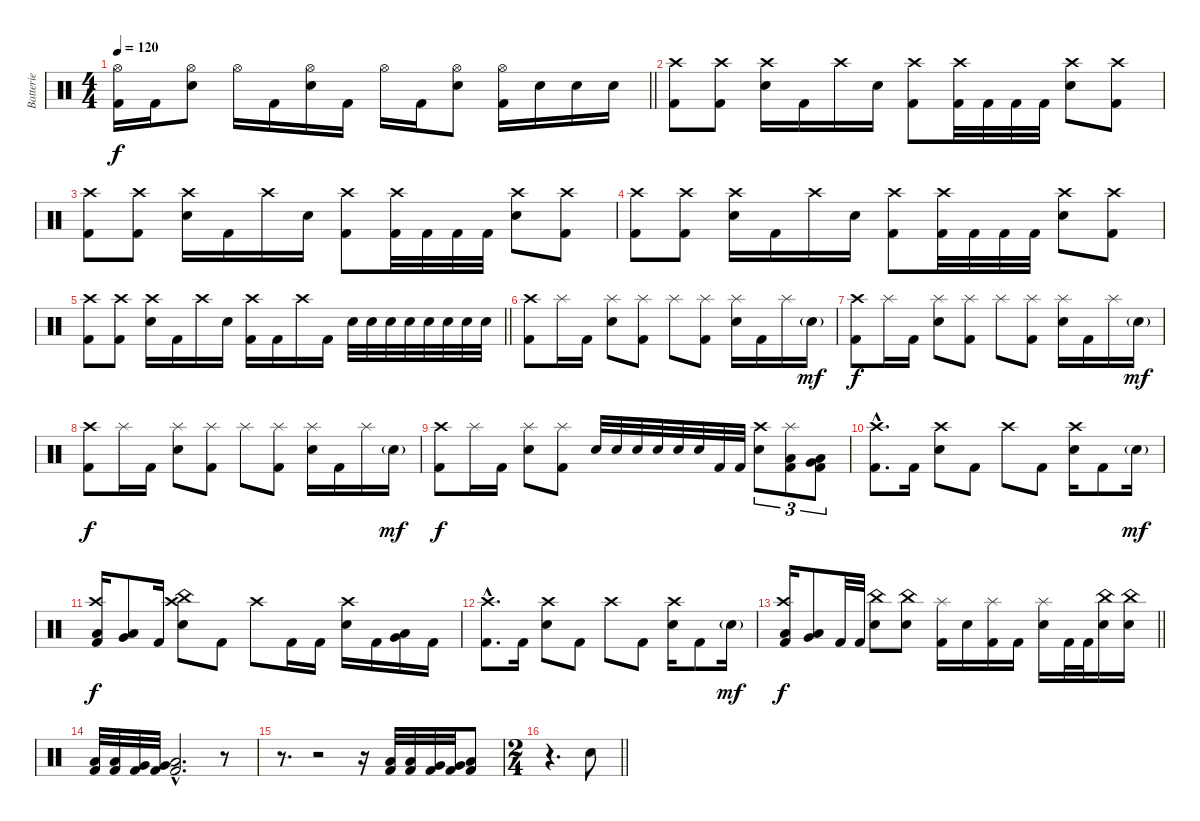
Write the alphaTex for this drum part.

\track ("Batterie" "Batterie") {instrument percussion}
\staff {score}
\articulation defaults
\ts (4 4)
\tempo 120
\clef neutral
\barLineRight lightlight
\ks c
("Hi-Hat (open)" "Kick (hit) 2").16{dy f} "Kick (hit) 2".16 ("Hi-Hat (open)" "Electric Snare (hit)").8 "Hi-Hat (open)".16 "Kick (hit) 2".16 ("Hi-Hat (open)" "Electric Snare (hit)").16 "Kick (hit) 2".16 "Hi-Hat (open)".16 "Kick (hit) 2".16 ("Hi-Hat (open)" "Electric Snare (hit)").8 ("Hi-Hat (open)" "Kick (hit) 2").16 "Electric Snare (hit)".16 "Electric Snare (hit)".16 "Electric Snare (hit)".16 |
("Crash high (hit)" "Kick (hit) 2").8 ("Crash high (hit)" "Kick (hit) 2").8 ("Crash high (hit)" "Electric Snare (hit)").16 "Kick (hit) 2".16 "Crash high (hit)".16 "Electric Snare (hit)".16 ("Crash high (hit)" "Kick (hit) 2").8 ("Crash high (hit)" "Kick (hit) 2").32 "Kick (hit) 2".32 "Kick (hit) 2".32 "Kick (hit) 2".32 ("Crash high (hit)" "Electric Snare (hit)").8 ("Crash high (hit)" "Kick (hit) 2").8 |
("Crash high (hit)" "Kick (hit) 2").8 ("Crash high (hit)" "Kick (hit) 2").8 ("Crash high (hit)" "Electric Snare (hit)").16 "Kick (hit) 2".16 "Crash high (hit)".16 "Electric Snare (hit)".16 ("Crash high (hit)" "Kick (hit) 2").8 ("Crash high (hit)" "Kick (hit) 2").32 "Kick (hit) 2".32 "Kick (hit) 2".32 "Kick (hit) 2".32 ("Crash high (hit)" "Electric Snare (hit)").8 ("Crash high (hit)" "Kick (hit) 2").8 |
("Crash high (hit)" "Kick (hit) 2").8 ("Crash high (hit)" "Kick (hit) 2").8 ("Crash high (hit)" "Electric Snare (hit)").16 "Kick (hit) 2".16 "Crash high (hit)".16 "Electric Snare (hit)".16 ("Crash high (hit)" "Kick (hit) 2").8 ("Crash high (hit)" "Kick (hit) 2").32 "Kick (hit) 2".32 "Kick (hit) 2".32 "Kick (hit) 2".32 ("Crash high (hit)" "Electric Snare (hit)").8 ("Crash high (hit)" "Kick (hit) 2").8 |
\barLineRight lightlight
("Crash high (hit)" "Kick (hit) 2").8 ("Crash high (hit)" "Kick (hit) 2").8 ("Crash high (hit)" "Electric Snare (hit)").16 "Kick (hit) 2".16 "Crash high (hit)".16 "Electric Snare (hit)".16 ("Crash high (hit)" "Kick (hit) 2").16 "Kick (hit) 2".16 "Crash high (hit)".16 "Kick (hit) 2".16 "Electric Snare (hit)".32 "Electric Snare (hit)".32 "Electric Snare (hit)".32 "Electric Snare (hit)".32 "Electric Snare (hit)".32 "Electric Snare (hit)".32 "Electric Snare (hit)".32 "Electric Snare (hit)".32 |
("Crash high (hit)" "Kick (hit) 2").8 "Splash (hit)".16 "Kick (hit) 2".16 ("Splash (hit)" "Electric Snare (hit)").8 ("Splash (hit)" "Kick (hit) 2").8 "Splash (hit)".8 ("Splash (hit)" "Kick (hit) 2").8 ("Splash (hit)" "Electric Snare (hit)").16 "Kick (hit) 2".16 "Splash (hit)".16 "Electric Snare (hit)"{g}.16{dy mf} |
("Crash high (hit)" "Kick (hit) 2").8{dy f} "Splash (hit)".16 "Kick (hit) 2".16 ("Splash (hit)" "Electric Snare (hit)").8 ("Splash (hit)" "Kick (hit) 2").8 "Splash (hit)".8 ("Splash (hit)" "Kick (hit) 2").8 ("Splash (hit)" "Electric Snare (hit)").16 "Kick (hit) 2".16 "Splash (hit)".16 "Electric Snare (hit)"{g}.16{dy mf} |
("Crash high (hit)" "Kick (hit) 2").8{dy f} "Splash (hit)".16 "Kick (hit) 2".16 ("Splash (hit)" "Electric Snare (hit)").8 ("Splash (hit)" "Kick (hit) 2").8 "Splash (hit)".8 ("Splash (hit)" "Kick (hit) 2").8 ("Splash (hit)" "Electric Snare (hit)").16 "Kick (hit) 2".16 "Splash (hit)".16 "Electric Snare (hit)"{g}.16{dy mf} |
("Crash high (hit)" "Kick (hit) 2").8{dy f} "Splash (hit)".16 "Kick (hit) 2".16 ("Splash (hit)" "Electric Snare (hit)").8 ("Splash (hit)" "Kick (hit) 2").8 "Electric Snare (hit)".32 "Electric Snare (hit)".32 "Electric Snare (hit)".32 "Electric Snare (hit)".32 "Electric Snare (hit)".32 "Electric Snare (hit)".32 "Kick (hit) 2".32 "Kick (hit) 2".32 ("Crash high (hit)" "Electric Snare (hit)").8{tu (3 2)} ("Splash (hit)" "Low Tom (hit)" "Kick (hit) 2").8{tu (3 2)} ("Very Low Tom (hit)" "Low Floor Tom (hit)" "Kick (hit) 2").8{tu (3 2)} |
("Crash high (hit)"{hac} "Kick (hit) 2"{hac}).8{d} "Kick (hit) 2".16 ("Crash high (hit)" "Electric Snare (hit)").8 "Kick (hit) 2".8 "Crash high (hit)".8 "Kick (hit) 2".8 ("Crash high (hit)" "Electric Snare (hit)").16 "Kick (hit) 2".8 "Electric Snare (hit)"{g}.16{dy mf} |
("Crash high (hit)" "Low Tom (hit)" "Kick (hit) 2").16{dy f} ("Low Tom (hit)" "Very Low Tom (hit)").8 "Kick (hit) 2".16 ("Crash high (hit)" "China (hit)" "Electric Snare (hit)").8 "Kick (hit) 2".8 "Crash high (hit)".8 "Kick (hit) 2".16 "Kick (hit) 2".16 ("Crash high (hit)" "Electric Snare (hit)").16 "Kick (hit) 2".16 ("Low Tom (hit)" "Very Low Tom (hit)").16 "Kick (hit) 2".16 |
("Crash high (hit)"{hac} "Kick (hit) 2"{hac}).8{d} "Kick (hit) 2".16 ("Crash high (hit)" "Electric Snare (hit)").8 "Kick (hit) 2".8 "Crash high (hit)".8 "Kick (hit) 2".8 ("Crash high (hit)" "Electric Snare (hit)").16 "Kick (hit) 2".8 "Electric Snare (hit)"{g}.16{dy mf} |
\barLineRight lightlight
("Crash high (hit)" "Low Tom (hit)" "Kick (hit) 2").16{dy f} ("Low Tom (hit)" "Very Low Tom (hit)").8 "Kick (hit) 2".32 "Kick (hit) 2".32 ("China (hit)" "Electric Snare (hit)").8 ("China (hit)" "Electric Snare (hit)").8 ("Splash (hit)" "Kick (hit) 2").16 "Electric Snare (hit)".16 ("Splash (hit)" "Kick (hit) 2").16 "Kick (hit) 2".16 ("Splash (hit)" "Electric Snare (hit)").16 "Kick (hit) 2".32 "Kick (hit) 2".32 ("China (hit)" "Electric Snare (hit)").16 ("China (hit)" "Electric Snare (hit)").16 |
("Low Tom (hit)" "Kick (hit) 2").32 ("Low Tom (hit)" "Kick (hit) 2").32 ("Very Low Tom (hit)" "Kick (hit) 2").32 ("Very Low Tom (hit)" "Kick (hit) 2").32 ("Low Floor Tom (hit)"{hac} "Kick (hit) 2"{hac}).2{d} r.8 |
r.8{d} r.2 r.16 ("Low Tom (hit)" "Kick (hit) 2").32 ("Low Tom (hit)" "Kick (hit) 2").32 ("Very Low Tom (hit)" "Kick (hit) 2").32 ("Very Low Tom (hit)" "Kick (hit) 2").32 ("Low Floor Tom (hit)" "Kick (hit) 2").8 |
\ts (2 4)
\barLineRight lightlight
r.4{d} "Electric Snare (hit)".8
